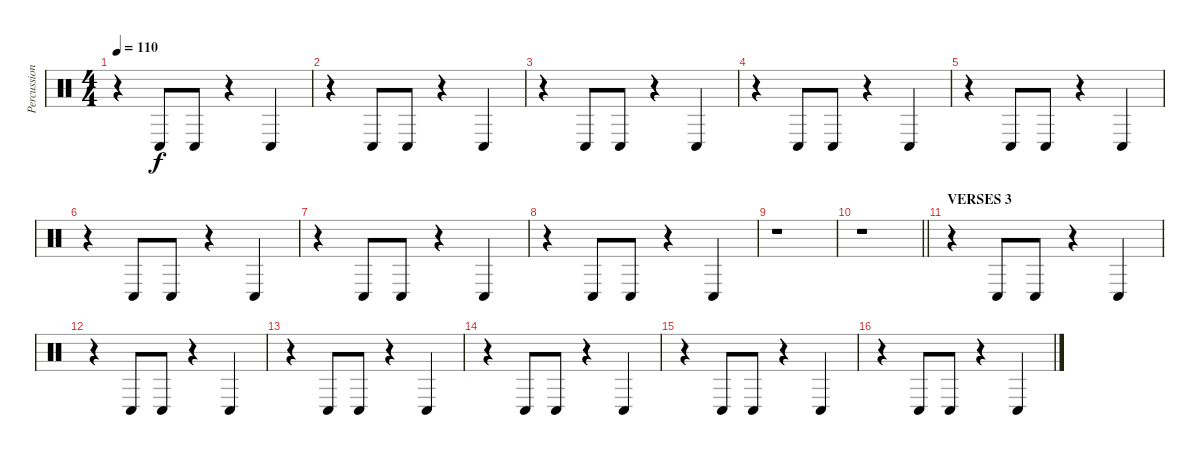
\track ("Percussion" "Percussion") {instrument percussion}
\staff {score}
\articulation defaults
\ts (4 4)
\tempo 110
\clef neutral
\ks c
r.4{dy f} "Conga low (hit)".8 "Conga low (hit)".8 r.4 "Conga low (hit)".4 |
r.4 "Conga low (hit)".8 "Conga low (hit)".8 r.4 "Conga low (hit)".4 |
r.4 "Conga low (hit)".8 "Conga low (hit)".8 r.4 "Conga low (hit)".4 |
r.4 "Conga low (hit)".8 "Conga low (hit)".8 r.4 "Conga low (hit)".4 |
r.4 "Conga low (hit)".8 "Conga low (hit)".8 r.4 "Conga low (hit)".4 |
r.4 "Conga low (hit)".8 "Conga low (hit)".8 r.4 "Conga low (hit)".4 |
r.4 "Conga low (hit)".8 "Conga low (hit)".8 r.4 "Conga low (hit)".4 |
r.4 "Conga low (hit)".8 "Conga low (hit)".8 r.4 "Conga low (hit)".4 |
r.1 |
\barLineRight lightlight
r.1 |
\section ("" "VERSES 3")
r.4 "Conga low (hit)".8 "Conga low (hit)".8 r.4 "Conga low (hit)".4 |
r.4 "Conga low (hit)".8 "Conga low (hit)".8 r.4 "Conga low (hit)".4 |
r.4 "Conga low (hit)".8 "Conga low (hit)".8 r.4 "Conga low (hit)".4 |
r.4 "Conga low (hit)".8 "Conga low (hit)".8 r.4 "Conga low (hit)".4 |
r.4 "Conga low (hit)".8 "Conga low (hit)".8 r.4 "Conga low (hit)".4 |
r.4 "Conga low (hit)".8 "Conga low (hit)".8 r.4 "Conga low (hit)".4
